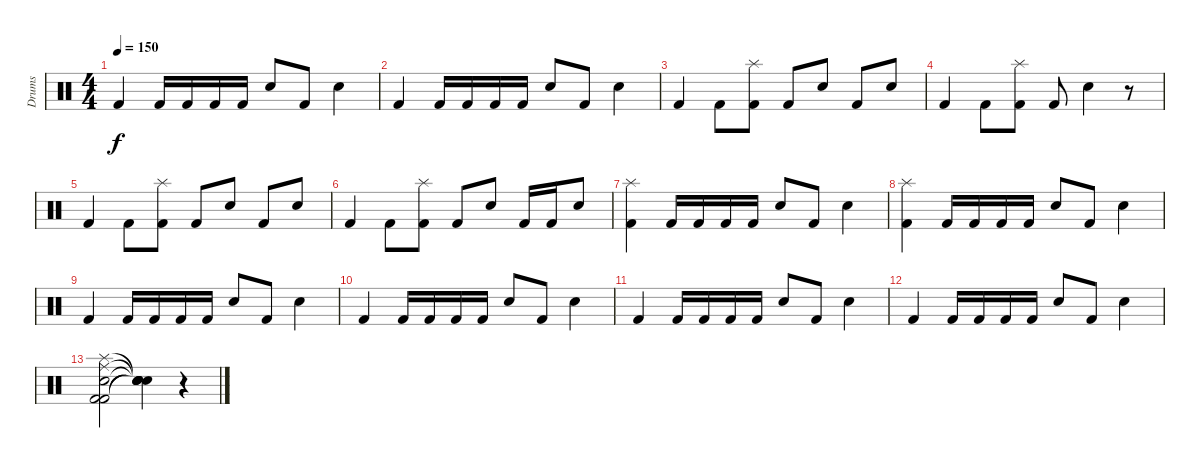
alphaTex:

\track ("Drums" "Drums") {instrument percussion}
\staff {score}
\articulation defaults
\ts (4 4)
\tempo 150
\clef neutral
\ks c "Kick (hit) 2".4{dy f} "Kick (hit) 2".16 "Kick (hit) 2".16 "Kick (hit) 2".16 "Kick (hit) 2".16 "Snare (hit) 2".8 "Kick (hit) 2".8 "Snare (hit) 2".4
|
"Kick (hit) 2".4 "Kick (hit) 2".16 "Kick (hit) 2".16 "Kick (hit) 2".16 "Kick (hit) 2".16 "Snare (hit) 2".8 "Kick (hit) 2".8 "Snare (hit) 2".4 |
"Kick (hit) 2".4 "Kick (hit) 2".8 ("Splash (hit)" "Kick (hit) 2").8 "Kick (hit) 2".8 "Snare (hit) 2".8 "Kick (hit) 2".8 "Snare (hit) 2".8 |
"Kick (hit) 2".4 "Kick (hit) 2".8 ("Splash (hit)" "Kick (hit) 2").8 "Kick (hit) 2".8 "Snare (hit) 2".4 r.8 |
"Kick (hit) 2".4 "Kick (hit) 2".8 ("Splash (hit)" "Kick (hit) 2").8 "Kick (hit) 2".8 "Snare (hit) 2".8 "Kick (hit) 2".8 "Snare (hit) 2".8 |
"Kick (hit) 2".4 "Kick (hit) 2".8 ("Splash (hit)" "Kick (hit) 2").8 "Kick (hit) 2".8 "Snare (hit) 2".8 "Kick (hit) 2".16 "Kick (hit) 2".16 "Snare (hit) 2".8 |
("Splash (hit)" "Kick (hit) 2").4 "Kick (hit) 2".16 "Kick (hit) 2".16 "Kick (hit) 2".16 "Kick (hit) 2".16 "Snare (hit) 2".8 "Kick (hit) 2".8 "Snare (hit) 2".4 |
("Splash (hit)" "Kick (hit) 2").4 "Kick (hit) 2".16 "Kick (hit) 2".16 "Kick (hit) 2".16 "Kick (hit) 2".16 "Snare (hit) 2".8 "Kick (hit) 2".8 "Snare (hit) 2".4 |
"Kick (hit) 2".4 "Kick (hit) 2".16 "Kick (hit) 2".16 "Kick (hit) 2".16 "Kick (hit) 2".16 "Snare (hit) 2".8 "Kick (hit) 2".8 "Snare (hit) 2".4 |
"Kick (hit) 2".4 "Kick (hit) 2".16 "Kick (hit) 2".16 "Kick (hit) 2".16 "Kick (hit) 2".16 "Snare (hit) 2".8 "Kick (hit) 2".8 "Snare (hit) 2".4 |
"Kick (hit) 2".4 "Kick (hit) 2".16 "Kick (hit) 2".16 "Kick (hit) 2".16 "Kick (hit) 2".16 "Snare (hit) 2".8 "Kick (hit) 2".8 "Snare (hit) 2".4 |
"Kick (hit) 2".4 "Kick (hit) 2".16 "Kick (hit) 2".16 "Kick (hit) 2".16 "Kick (hit) 2".16 "Snare (hit) 2".8 "Kick (hit) 2".8 "Snare (hit) 2".4 |
("Ride (middle)" "Splash (hit)" "Snare (hit) 2" "Kick (hit) 2" "Kick (hit) 2").2 ("Snare (hit)"{t} "Snare (hit)"{t} "Snare (hit)"{t} "Snare (hit)"{t} "Snare (hit)"{t}).4 r.4
